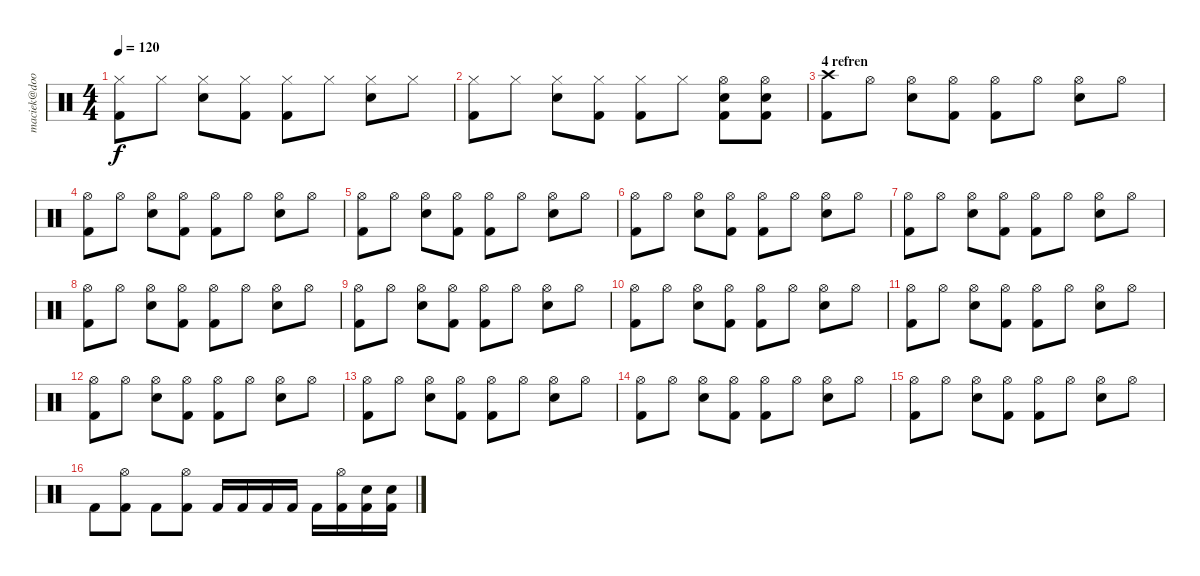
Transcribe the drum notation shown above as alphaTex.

\track ("maciek@doorpol.com" "maciek@doo") {instrument percussion}
\staff {score}
\articulation defaults
\ts (4 4)
\tempo 120
\clef neutral
\ks c
("Hi-Hat (closed)" "Kick (hit) 2").8{dy f} "Hi-Hat (closed)".8 ("Hi-Hat (closed)" "Snare (hit) 2").8 ("Hi-Hat (closed)" "Kick (hit) 2").8 ("Hi-Hat (closed)" "Kick (hit) 2").8 "Hi-Hat (closed)".8 ("Hi-Hat (closed)" "Snare (hit) 2").8 "Hi-Hat (closed)".8 |
("Hi-Hat (closed)" "Kick (hit) 2").8 "Hi-Hat (closed)".8 ("Hi-Hat (closed)" "Snare (hit) 2").8 ("Hi-Hat (closed)" "Kick (hit) 2").8 ("Hi-Hat (closed)" "Kick (hit) 2").8 "Hi-Hat (closed)".8 ("Hi-Hat (open)" "Kick (hit) 2" "Electric Snare (hit)").8 ("Hi-Hat (open)" "Kick (hit) 2" "Snare (hit) 2").8 |
\section ("" "4 refren")
("Crash high (hit)" "Kick (hit) 2").8 "Hi-Hat (open)".8 ("Hi-Hat (open)" "Snare (hit) 2").8 ("Hi-Hat (open)" "Kick (hit) 2").8 ("Hi-Hat (open)" "Kick (hit) 2").8 "Hi-Hat (open)".8 ("Hi-Hat (open)" "Snare (hit) 2").8 "Hi-Hat (open)".8 |
("Hi-Hat (open)" "Kick (hit) 2").8 "Hi-Hat (open)".8 ("Hi-Hat (open)" "Snare (hit) 2").8 ("Hi-Hat (open)" "Kick (hit) 2").8 ("Hi-Hat (open)" "Kick (hit) 2").8 "Hi-Hat (open)".8 ("Hi-Hat (open)" "Snare (hit) 2").8 "Hi-Hat (open)".8 |
("Hi-Hat (open)" "Kick (hit) 2").8 "Hi-Hat (open)".8 ("Hi-Hat (open)" "Snare (hit) 2").8 ("Hi-Hat (open)" "Kick (hit) 2").8 ("Hi-Hat (open)" "Kick (hit) 2").8 "Hi-Hat (open)".8 ("Hi-Hat (open)" "Snare (hit) 2").8 "Hi-Hat (open)".8 |
("Hi-Hat (open)" "Kick (hit) 2").8 "Hi-Hat (open)".8 ("Hi-Hat (open)" "Snare (hit) 2").8 ("Hi-Hat (open)" "Kick (hit) 2").8 ("Hi-Hat (open)" "Kick (hit) 2").8 "Hi-Hat (open)".8 ("Hi-Hat (open)" "Snare (hit) 2").8 "Hi-Hat (open)".8 |
("Hi-Hat (open)" "Kick (hit) 2").8 "Hi-Hat (open)".8 ("Hi-Hat (open)" "Snare (hit) 2").8 ("Hi-Hat (open)" "Kick (hit) 2").8 ("Hi-Hat (open)" "Kick (hit) 2").8 "Hi-Hat (open)".8 ("Hi-Hat (open)" "Snare (hit) 2").8 "Hi-Hat (open)".8 |
("Hi-Hat (open)" "Kick (hit) 2").8 "Hi-Hat (open)".8 ("Hi-Hat (open)" "Snare (hit) 2").8 ("Hi-Hat (open)" "Kick (hit) 2").8 ("Hi-Hat (open)" "Kick (hit) 2").8 "Hi-Hat (open)".8 ("Hi-Hat (open)" "Snare (hit) 2").8 "Hi-Hat (open)".8 |
("Hi-Hat (open)" "Kick (hit) 2").8 "Hi-Hat (open)".8 ("Hi-Hat (open)" "Snare (hit) 2").8 ("Hi-Hat (open)" "Kick (hit) 2").8 ("Hi-Hat (open)" "Kick (hit) 2").8 "Hi-Hat (open)".8 ("Hi-Hat (open)" "Snare (hit) 2").8 "Hi-Hat (open)".8 |
("Hi-Hat (open)" "Kick (hit) 2").8 "Hi-Hat (open)".8 ("Hi-Hat (open)" "Snare (hit) 2").8 ("Hi-Hat (open)" "Kick (hit) 2").8 ("Hi-Hat (open)" "Kick (hit) 2").8 "Hi-Hat (open)".8 ("Hi-Hat (open)" "Snare (hit) 2").8 "Hi-Hat (open)".8 |
("Hi-Hat (open)" "Kick (hit) 2").8 "Hi-Hat (open)".8 ("Hi-Hat (open)" "Snare (hit) 2").8 ("Hi-Hat (open)" "Kick (hit) 2").8 ("Hi-Hat (open)" "Kick (hit) 2").8 "Hi-Hat (open)".8 ("Hi-Hat (open)" "Snare (hit) 2").8 "Hi-Hat (open)".8 |
("Hi-Hat (open)" "Kick (hit) 2").8 "Hi-Hat (open)".8 ("Hi-Hat (open)" "Snare (hit) 2").8 ("Hi-Hat (open)" "Kick (hit) 2").8 ("Hi-Hat (open)" "Kick (hit) 2").8 "Hi-Hat (open)".8 ("Hi-Hat (open)" "Snare (hit) 2").8 "Hi-Hat (open)".8 |
("Hi-Hat (open)" "Kick (hit) 2").8 "Hi-Hat (open)".8 ("Hi-Hat (open)" "Snare (hit) 2").8 ("Hi-Hat (open)" "Kick (hit) 2").8 ("Hi-Hat (open)" "Kick (hit) 2").8 "Hi-Hat (open)".8 ("Hi-Hat (open)" "Snare (hit) 2").8 "Hi-Hat (open)".8 |
("Hi-Hat (open)" "Kick (hit) 2").8 "Hi-Hat (open)".8 ("Hi-Hat (open)" "Snare (hit) 2").8 ("Hi-Hat (open)" "Kick (hit) 2").8 ("Hi-Hat (open)" "Kick (hit) 2").8 "Hi-Hat (open)".8 ("Hi-Hat (open)" "Snare (hit) 2").8 "Hi-Hat (open)".8 |
("Hi-Hat (open)" "Kick (hit) 2").8 "Hi-Hat (open)".8 ("Hi-Hat (open)" "Snare (hit) 2").8 ("Hi-Hat (open)" "Kick (hit) 2").8 ("Hi-Hat (open)" "Kick (hit) 2").8 "Hi-Hat (open)".8 ("Hi-Hat (open)" "Snare (hit) 2").8 "Hi-Hat (open)".8 |
"Kick (hit) 2".8 ("Kick (hit) 2" "Hi-Hat (open)").8 "Kick (hit) 2".8 ("Kick (hit) 2" "Hi-Hat (open)").8 "Kick (hit) 2".16 "Kick (hit) 2".16 "Kick (hit) 2".16 "Kick (hit) 2".16 "Kick (hit) 2".16 ("Kick (hit) 2" "Hi-Hat (open)").16 ("Kick (hit) 2" "Snare (hit) 2").16 ("Kick (hit) 2" "Snare (hit) 2").16
